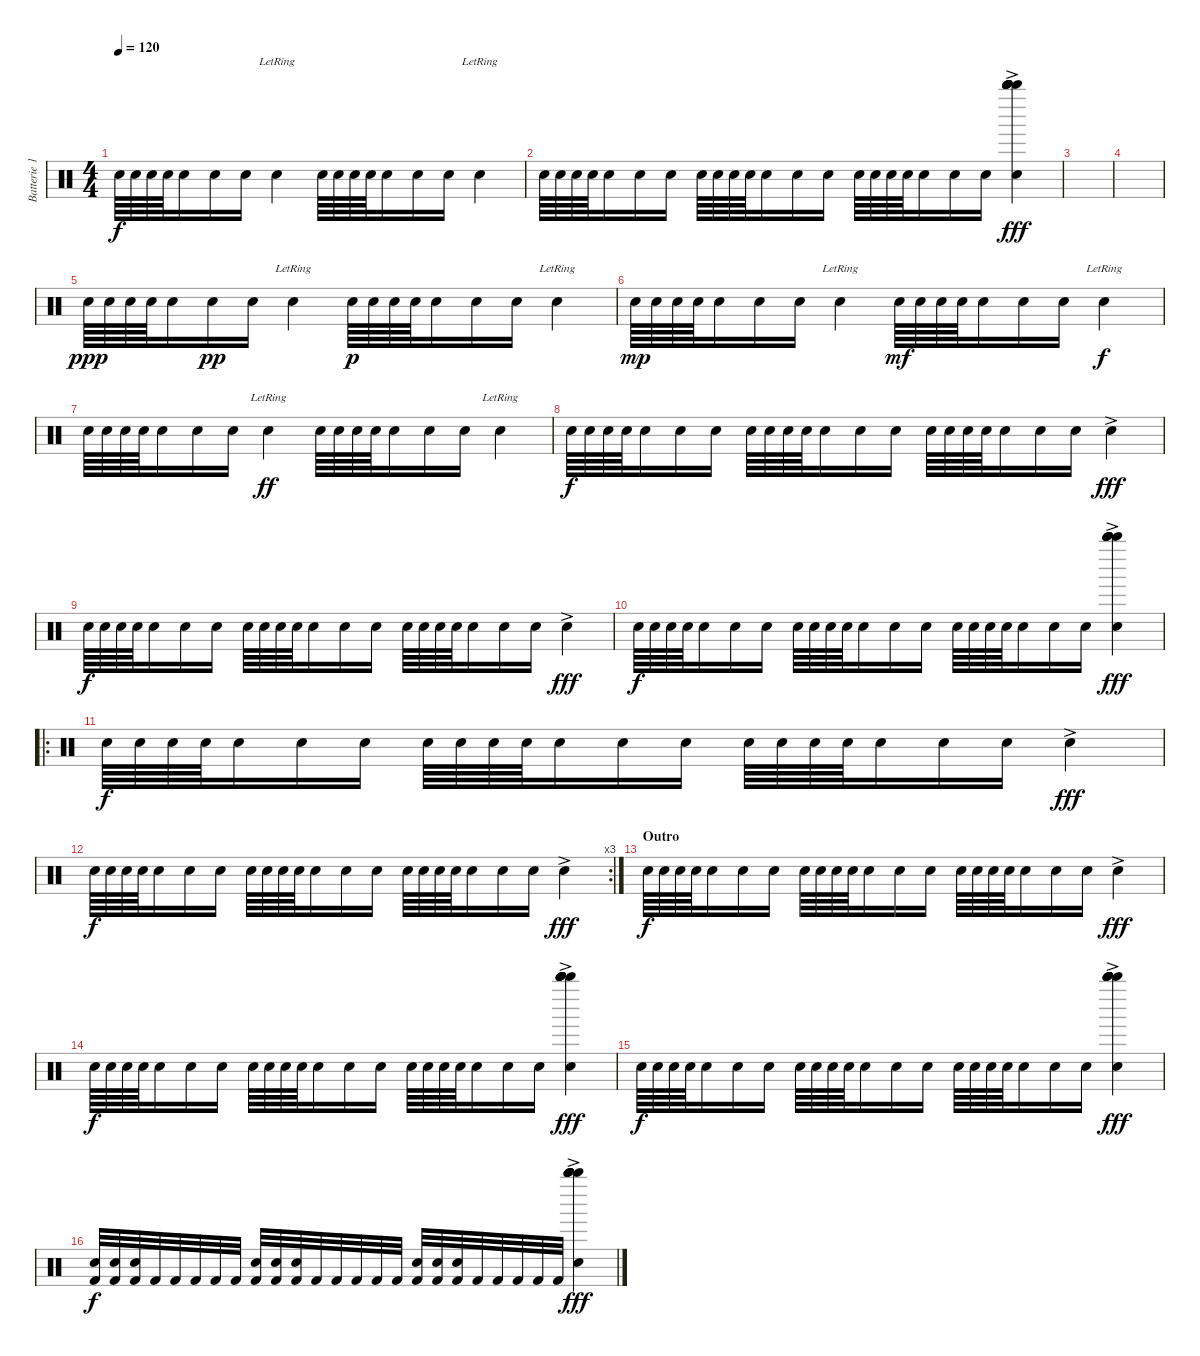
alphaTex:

\track ("Batterie 1 (armee theme)" "Batterie 1") {instrument percussion}
\staff {score}
\articulation defaults
\ts (4 4)
\tempo 120
\clef neutral
\ks c "Electric Snare (hit)".64{dy f} "Electric Snare (hit)".64 "Electric Snare (hit)".64 "Electric Snare (hit)".64 "Electric Snare (hit)".16 "Electric Snare (hit)".16 "Electric Snare (hit)".16 "Electric Snare (hit)"{lr}.4 "Electric Snare (hit)".64 "Electric Snare (hit)".64 "Electric Snare (hit)".64 "Electric Snare (hit)".64 "Electric Snare (hit)".16 "Electric Snare (hit)".16 "Electric Snare (hit)".16 "Electric Snare (hit)"{lr}.4
|
"Electric Snare (hit)".64 "Electric Snare (hit)".64 "Electric Snare (hit)".64 "Electric Snare (hit)".64 "Electric Snare (hit)".16 "Electric Snare (hit)".16 "Electric Snare (hit)".16 "Electric Snare (hit)".64 "Electric Snare (hit)".64 "Electric Snare (hit)".64 "Electric Snare (hit)".64 "Electric Snare (hit)".16 "Electric Snare (hit)".16 "Electric Snare (hit)".16 "Electric Snare (hit)".64 "Electric Snare (hit)".64 "Electric Snare (hit)".64 "Electric Snare (hit)".64 "Electric Snare (hit)".16 "Electric Snare (hit)".16 "Electric Snare (hit)".16 ("Whistle high (hit)"{ac} "Whistle high (hit)"{ac} "Whistle high (hit)"{ac} "Electric Snare (hit)"{ac} "Whistle high (hit)"{ac} "Whistle high (hit)"{ac}).4{dy fff} |
|
|
"Electric Snare (hit)".64{dy ppp} "Electric Snare (hit)".64 "Electric Snare (hit)".64 "Electric Snare (hit)".64 "Electric Snare (hit)".16 "Electric Snare (hit)".16{dy pp} "Electric Snare (hit)".16 "Electric Snare (hit)"{lr}.4 "Electric Snare (hit)".64{dy p} "Electric Snare (hit)".64 "Electric Snare (hit)".64 "Electric Snare (hit)".64 "Electric Snare (hit)".16 "Electric Snare (hit)".16 "Electric Snare (hit)".16 "Electric Snare (hit)"{lr}.4 |
"Electric Snare (hit)".64{dy mp} "Electric Snare (hit)".64 "Electric Snare (hit)".64 "Electric Snare (hit)".64 "Electric Snare (hit)".16 "Electric Snare (hit)".16 "Electric Snare (hit)".16 "Electric Snare (hit)"{lr}.4 "Electric Snare (hit)".64{dy mf} "Electric Snare (hit)".64 "Electric Snare (hit)".64 "Electric Snare (hit)".64 "Electric Snare (hit)".16 "Electric Snare (hit)".16 "Electric Snare (hit)".16 "Electric Snare (hit)"{lr}.4{dy f} |
\section ("" "")
"Electric Snare (hit)".64 "Electric Snare (hit)".64 "Electric Snare (hit)".64 "Electric Snare (hit)".64 "Electric Snare (hit)".16 "Electric Snare (hit)".16 "Electric Snare (hit)".16 "Electric Snare (hit)"{lr}.4{dy ff} "Electric Snare (hit)".64 "Electric Snare (hit)".64 "Electric Snare (hit)".64 "Electric Snare (hit)".64 "Electric Snare (hit)".16 "Electric Snare (hit)".16 "Electric Snare (hit)".16 "Electric Snare (hit)"{lr}.4 |
"Electric Snare (hit)".64{dy f} "Electric Snare (hit)".64 "Electric Snare (hit)".64 "Electric Snare (hit)".64 "Electric Snare (hit)".16 "Electric Snare (hit)".16 "Electric Snare (hit)".16 "Electric Snare (hit)".64 "Electric Snare (hit)".64 "Electric Snare (hit)".64 "Electric Snare (hit)".64 "Electric Snare (hit)".16 "Electric Snare (hit)".16 "Electric Snare (hit)".16 "Electric Snare (hit)".64 "Electric Snare (hit)".64 "Electric Snare (hit)".64 "Electric Snare (hit)".64 "Electric Snare (hit)".16 "Electric Snare (hit)".16 "Electric Snare (hit)".16 "Electric Snare (hit)"{ac}.4{dy fff} |
"Electric Snare (hit)".64{dy f} "Electric Snare (hit)".64 "Electric Snare (hit)".64 "Electric Snare (hit)".64 "Electric Snare (hit)".16 "Electric Snare (hit)".16 "Electric Snare (hit)".16 "Electric Snare (hit)".64 "Electric Snare (hit)".64 "Electric Snare (hit)".64 "Electric Snare (hit)".64 "Electric Snare (hit)".16 "Electric Snare (hit)".16 "Electric Snare (hit)".16 "Electric Snare (hit)".64 "Electric Snare (hit)".64 "Electric Snare (hit)".64 "Electric Snare (hit)".64 "Electric Snare (hit)".16 "Electric Snare (hit)".16 "Electric Snare (hit)".16 "Electric Snare (hit)"{ac}.4{dy fff} |
"Electric Snare (hit)".64{dy f} "Electric Snare (hit)".64 "Electric Snare (hit)".64 "Electric Snare (hit)".64 "Electric Snare (hit)".16 "Electric Snare (hit)".16 "Electric Snare (hit)".16 "Electric Snare (hit)".64 "Electric Snare (hit)".64 "Electric Snare (hit)".64 "Electric Snare (hit)".64 "Electric Snare (hit)".16 "Electric Snare (hit)".16 "Electric Snare (hit)".16 "Electric Snare (hit)".64 "Electric Snare (hit)".64 "Electric Snare (hit)".64 "Electric Snare (hit)".64 "Electric Snare (hit)".16 "Electric Snare (hit)".16 "Electric Snare (hit)".16 ("Whistle high (hit)"{ac} "Whistle high (hit)"{ac} "Whistle high (hit)"{ac} "Electric Snare (hit)"{ac} "Whistle high (hit)"{ac} "Whistle high (hit)"{ac}).4{dy fff} |
\ro "Electric Snare (hit)".64{dy f} "Electric Snare (hit)".64 "Electric Snare (hit)".64 "Electric Snare (hit)".64 "Electric Snare (hit)".16 "Electric Snare (hit)".16 "Electric Snare (hit)".16 "Electric Snare (hit)".64 "Electric Snare (hit)".64 "Electric Snare (hit)".64 "Electric Snare (hit)".64 "Electric Snare (hit)".16 "Electric Snare (hit)".16 "Electric Snare (hit)".16 "Electric Snare (hit)".64 "Electric Snare (hit)".64 "Electric Snare (hit)".64 "Electric Snare (hit)".64 "Electric Snare (hit)".16 "Electric Snare (hit)".16 "Electric Snare (hit)".16 "Electric Snare (hit)"{ac}.4{dy fff}
|
\rc 3 "Electric Snare (hit)".64{dy f} "Electric Snare (hit)".64 "Electric Snare (hit)".64 "Electric Snare (hit)".64 "Electric Snare (hit)".16 "Electric Snare (hit)".16 "Electric Snare (hit)".16 "Electric Snare (hit)".64 "Electric Snare (hit)".64 "Electric Snare (hit)".64 "Electric Snare (hit)".64 "Electric Snare (hit)".16 "Electric Snare (hit)".16 "Electric Snare (hit)".16 "Electric Snare (hit)".64 "Electric Snare (hit)".64 "Electric Snare (hit)".64 "Electric Snare (hit)".64 "Electric Snare (hit)".16 "Electric Snare (hit)".16 "Electric Snare (hit)".16 "Electric Snare (hit)"{ac}.4{dy fff}
|
\section ("" "Outro")
"Electric Snare (hit)".64{dy f} "Electric Snare (hit)".64 "Electric Snare (hit)".64 "Electric Snare (hit)".64 "Electric Snare (hit)".16 "Electric Snare (hit)".16 "Electric Snare (hit)".16 "Electric Snare (hit)".64 "Electric Snare (hit)".64 "Electric Snare (hit)".64 "Electric Snare (hit)".64 "Electric Snare (hit)".16 "Electric Snare (hit)".16 "Electric Snare (hit)".16 "Electric Snare (hit)".64 "Electric Snare (hit)".64 "Electric Snare (hit)".64 "Electric Snare (hit)".64 "Electric Snare (hit)".16 "Electric Snare (hit)".16 "Electric Snare (hit)".16 "Electric Snare (hit)"{ac}.4{dy fff} |
"Electric Snare (hit)".64{dy f} "Electric Snare (hit)".64 "Electric Snare (hit)".64 "Electric Snare (hit)".64 "Electric Snare (hit)".16 "Electric Snare (hit)".16 "Electric Snare (hit)".16 "Electric Snare (hit)".64 "Electric Snare (hit)".64 "Electric Snare (hit)".64 "Electric Snare (hit)".64 "Electric Snare (hit)".16 "Electric Snare (hit)".16 "Electric Snare (hit)".16 "Electric Snare (hit)".64 "Electric Snare (hit)".64 "Electric Snare (hit)".64 "Electric Snare (hit)".64 "Electric Snare (hit)".16 "Electric Snare (hit)".16 "Electric Snare (hit)".16 ("Whistle high (hit)"{ac} "Whistle high (hit)"{ac} "Whistle high (hit)"{ac} "Electric Snare (hit)"{ac} "Whistle high (hit)"{ac} "Whistle high (hit)"{ac}).4{dy fff} |
"Electric Snare (hit)".64{dy f} "Electric Snare (hit)".64 "Electric Snare (hit)".64 "Electric Snare (hit)".64 "Electric Snare (hit)".16 "Electric Snare (hit)".16 "Electric Snare (hit)".16 "Electric Snare (hit)".64 "Electric Snare (hit)".64 "Electric Snare (hit)".64 "Electric Snare (hit)".64 "Electric Snare (hit)".16 "Electric Snare (hit)".16 "Electric Snare (hit)".16 "Electric Snare (hit)".64 "Electric Snare (hit)".64 "Electric Snare (hit)".64 "Electric Snare (hit)".64 "Electric Snare (hit)".16 "Electric Snare (hit)".16 "Electric Snare (hit)".16 ("Whistle high (hit)"{ac} "Whistle high (hit)"{ac} "Whistle high (hit)"{ac} "Electric Snare (hit)"{ac} "Whistle high (hit)"{ac} "Whistle high (hit)"{ac}).4{dy fff} |
("Electric Snare (hit)" "Kick (hit) 2").32{dy f} ("Electric Snare (hit)" "Kick (hit) 2").32 ("Electric Snare (hit)" "Kick (hit) 2").32 "Kick (hit) 2".32 "Kick (hit) 2".32 "Kick (hit) 2".32 "Kick (hit) 2".32 "Kick (hit) 2".32 ("Electric Snare (hit)" "Kick (hit) 2").32 ("Electric Snare (hit)" "Kick (hit) 2").32 ("Electric Snare (hit)" "Kick (hit) 2").32 "Kick (hit) 2".32 "Kick (hit) 2".32 "Kick (hit) 2".32 "Kick (hit) 2".32 "Kick (hit) 2".32 ("Electric Snare (hit)" "Kick (hit) 2").32 ("Electric Snare (hit)" "Kick (hit) 2").32 ("Electric Snare (hit)" "Kick (hit) 2").32 "Kick (hit) 2".32 "Kick (hit) 2".32 "Kick (hit) 2".32 "Kick (hit) 2".32 "Kick (hit) 2".32 ("Whistle high (hit)"{ac} "Whistle high (hit)"{ac} "Whistle high (hit)"{ac} "Electric Snare (hit)"{ac} "Whistle high (hit)"{ac} "Whistle high (hit)"{ac}).4{dy fff}
